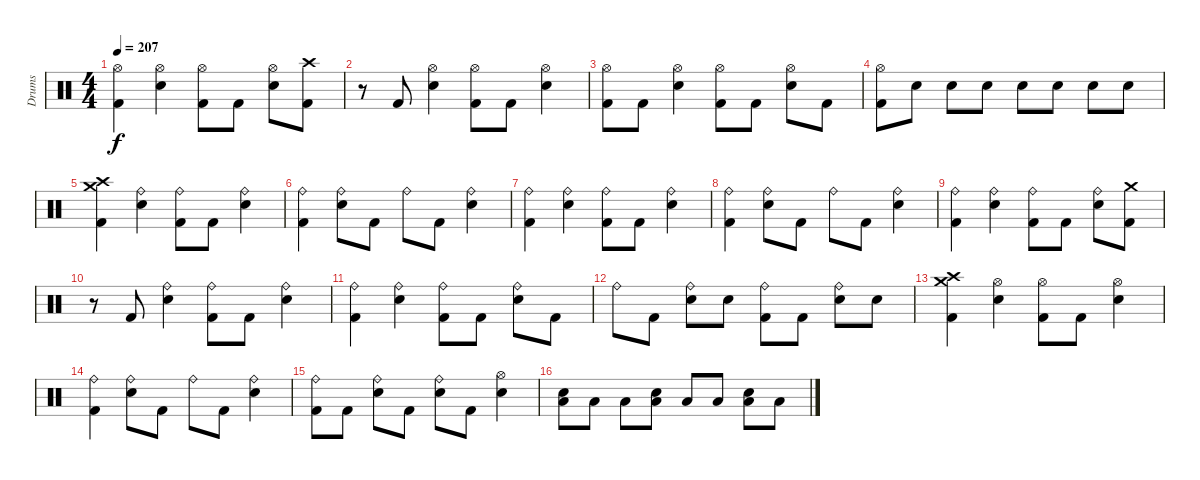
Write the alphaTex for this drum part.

\track ("Drums" "Drums") {instrument percussion}
\staff {score}
\articulation defaults
\ts (4 4)
\tempo 207
\clef neutral
\ks c
("Hi-Hat (open)" "Kick (hit) 2").4{dy f} ("Hi-Hat (open)" "Snare (hit) 2").4 ("Hi-Hat (open)" "Kick (hit) 2").8 "Kick (hit) 2".8 ("Hi-Hat (open)" "Snare (hit) 2").8 ("Crash high (hit)" "Kick (hit) 2").8 |
r.8 "Kick (hit) 2".8 ("Hi-Hat (open)" "Snare (hit) 2").4 ("Hi-Hat (open)" "Kick (hit) 2").8 "Kick (hit) 2".8 ("Hi-Hat (open)" "Snare (hit) 2").4 |
("Hi-Hat (open)" "Kick (hit) 2").8 "Kick (hit) 2".8 ("Hi-Hat (open)" "Snare (hit) 2").4 ("Hi-Hat (open)" "Kick (hit) 2").8 "Kick (hit) 2".8 ("Hi-Hat (open)" "Snare (hit) 2").8 "Kick (hit) 2".8 |
("Hi-Hat (open)" "Kick (hit) 2").8 "Snare (hit) 2".8 "Snare (hit) 2".8 "Snare (hit) 2".8 "Snare (hit) 2".8 "Snare (hit) 2".8 "Snare (hit) 2".8 "Snare (hit) 2".8 |
("Crash medium (hit)" "Crash high (hit)" "Kick (hit) 2").4 ("Ride (bell)" "Snare (hit) 2").4 ("Ride (bell)" "Kick (hit) 2").8 "Kick (hit) 2".8 ("Ride (bell)" "Snare (hit) 2").4 |
("Ride (bell)" "Kick (hit) 2").4 ("Ride (bell)" "Snare (hit) 2").8 "Kick (hit) 2".8 "Ride (bell)".8 "Kick (hit) 2".8 ("Ride (bell)" "Snare (hit) 2").4 |
("Ride (bell)" "Kick (hit) 2").4 ("Ride (bell)" "Snare (hit) 2").4 ("Ride (bell)" "Kick (hit) 2").8 "Kick (hit) 2".8 ("Ride (bell)" "Snare (hit) 2").4 |
("Ride (bell)" "Kick (hit) 2").4 ("Ride (bell)" "Snare (hit) 2").8 "Kick (hit) 2".8 "Ride (bell)".8 "Kick (hit) 2".8 ("Ride (bell)" "Snare (hit) 2").4 |
("Ride (bell)" "Kick (hit) 2").4 ("Ride (bell)" "Snare (hit) 2").4 ("Ride (bell)" "Kick (hit) 2").8 "Kick (hit) 2".8 ("Ride (bell)" "Snare (hit) 2").8 ("Crash medium (hit)" "Kick (hit) 2").8 |
r.8 "Kick (hit) 2".8 ("Ride (bell)" "Snare (hit) 2").4 ("Ride (bell)" "Kick (hit) 2").8 "Kick (hit) 2".8 ("Ride (bell)" "Snare (hit) 2").4 |
("Ride (bell)" "Kick (hit) 2").4 ("Ride (bell)" "Snare (hit) 2").4 ("Ride (bell)" "Kick (hit) 2").8 "Kick (hit) 2".8 ("Ride (bell)" "Snare (hit) 2").8 "Kick (hit) 2".8 |
"Ride (bell)".8 "Kick (hit) 2".8 ("Ride (bell)" "Snare (hit) 2").8 "Snare (hit) 2".8 ("Ride (bell)" "Kick (hit) 2").8 "Kick (hit) 2".8 ("Ride (bell)" "Snare (hit) 2").8 "Snare (hit) 2".8 |
("Crash medium (hit)" "Crash high (hit)" "Kick (hit) 2").4 ("Hi-Hat (open)" "Snare (hit) 2").4 ("Hi-Hat (open)" "Kick (hit) 2").8 "Kick (hit) 2".8 ("Hi-Hat (open)" "Snare (hit) 2").4 |
("Ride (bell)" "Kick (hit) 2").4 ("Ride (bell)" "Snare (hit) 2").8 "Kick (hit) 2".8 "Ride (bell)".8 "Kick (hit) 2".8 ("Ride (bell)" "Snare (hit) 2").4 |
("Ride (bell)" "Kick (hit) 2").8 "Kick (hit) 2".8 ("Ride (bell)" "Snare (hit) 2").8 "Kick (hit) 2".8 ("Ride (bell)" "Snare (hit) 2").8 "Kick (hit) 2".8 ("Hi-Hat (open)" "Snare (hit) 2").4 |
("Snare (hit) 2" "Low Floor Tom (hit)").8 "Low Floor Tom (hit)".8 "Low Floor Tom (hit)".8 ("Snare (hit) 2" "Low Floor Tom (hit)").8 "Low Floor Tom (hit)".8 "Low Floor Tom (hit)".8 ("Snare (hit) 2" "Low Floor Tom (hit)").8 "Low Floor Tom (hit)".8
